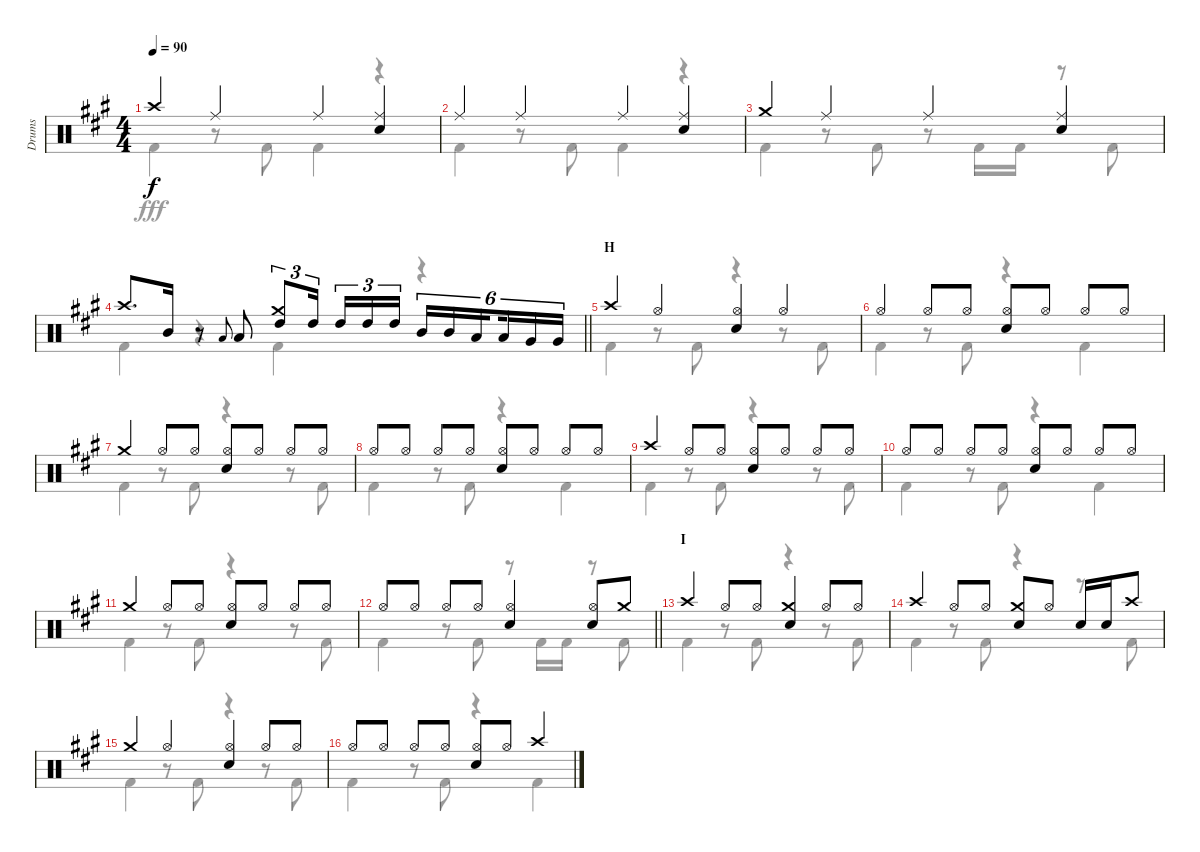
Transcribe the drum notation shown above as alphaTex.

\track ("Drums" "Drums") {instrument percussion}
\staff {score}
\articulation defaults
\voice
\ts (4 4)
\tempo 90
\clef neutral
\ks a "Crash high (hit)".4{dy f} "Ride (middle)".4 "Ride (middle)".4
("Ride (middle)" "Snare (hit) 2").4 |
"Ride (middle)".4 "Ride (middle)".4 "Ride (middle)".4 ("Ride (middle)" "Snare (hit) 2").4 |
"Crash medium (hit)".4 "Ride (middle)".4 "Ride (middle)".4 ("Ride (middle)" "Snare (hit) 2").4 |
\barLineRight lightlight "Crash high (hit)".8{d} "Mid Tom (hit)".16
r.8 "Low Tom (hit)".8{gr onbeat} "Low Tom (hit)".8 ("Crash medium (hit)" "High Tom (hit)").8{tu (3 2)} "High Tom (hit)".16{tu (3 2) beam splitsecondary} "High Tom (hit)".16{tu (3 2)} "High Tom (hit)".16{tu (3 2)} "High Tom (hit)".16{tu (3 2)} "Mid Tom (hit)".16{tu (6 4)} "Mid Tom (hit)".16{tu (6 4)} "Low Tom (hit)".16{tu (6 4) beam splitsecondary} "Low Tom (hit)".16{tu (6 4)} "Very Low Tom (hit)".16{tu (6 4)} "Very Low Tom (hit)".16{tu (6 4)} |
\section ("" "H")
"Crash high (hit)".4 "Hi-Hat (open)".4 ("Hi-Hat (open)" "Snare (hit) 2").4 "Hi-Hat (open)".4 |
"Hi-Hat (open)".4 "Hi-Hat (open)".8 "Hi-Hat (open)".8 ("Hi-Hat (open)" "Snare (hit) 2").8 "Hi-Hat (open)".8 "Hi-Hat (open)".8 "Hi-Hat (open)".8 |
"Crash medium (hit)".4 "Hi-Hat (open)".8 "Hi-Hat (open)".8 ("Hi-Hat (open)" "Snare (hit) 2").8 "Hi-Hat (open)".8 "Hi-Hat (open)".8 "Hi-Hat (open)".8 |
"Hi-Hat (open)".8 "Hi-Hat (open)".8 "Hi-Hat (open)".8 "Hi-Hat (open)".8 ("Hi-Hat (open)" "Snare (hit) 2").8 "Hi-Hat (open)".8 "Hi-Hat (open)".8 "Hi-Hat (open)".8 |
"Crash high (hit)".4 "Hi-Hat (open)".8 "Hi-Hat (open)".8 ("Hi-Hat (open)" "Snare (hit) 2").8 "Hi-Hat (open)".8 "Hi-Hat (open)".8 "Hi-Hat (open)".8 |
"Hi-Hat (open)".8 "Hi-Hat (open)".8 "Hi-Hat (open)".8 "Hi-Hat (open)".8 ("Hi-Hat (open)" "Snare (hit) 2").8 "Hi-Hat (open)".8 "Hi-Hat (open)".8 "Hi-Hat (open)".8 |
"Crash medium (hit)".4 "Hi-Hat (open)".8 "Hi-Hat (open)".8 ("Hi-Hat (open)" "Snare (hit) 2").8 "Hi-Hat (open)".8 "Hi-Hat (open)".8 "Hi-Hat (open)".8 |
\barLineRight lightlight "Hi-Hat (open)".8 "Hi-Hat (open)".8 "Hi-Hat (open)".8 "Hi-Hat (open)".8
("Hi-Hat (open)" "Snare (hit) 2").4 ("Hi-Hat (open)" "Snare (hit) 2").8 "Crash medium (hit)".8 |
\section ("" "I")
"Crash high (hit)".4 "Hi-Hat (open)".8 "Hi-Hat (open)".8 ("Crash medium (hit)" "Snare (hit) 2").4 "Hi-Hat (open)".8 "Hi-Hat (open)".8 |
"Crash high (hit)".4 "Hi-Hat (open)".8 "Hi-Hat (open)".8 ("Crash medium (hit)" "Snare (hit) 2").8 "Hi-Hat (open)".8 "Snare (hit) 2".16 "Snare (hit) 2".16 "Crash high (hit)".8 |
"Crash medium (hit)".4 "Hi-Hat (open)".4 ("Hi-Hat (open)" "Snare (hit) 2").4 "Hi-Hat (open)".8 "Hi-Hat (open)".8 |
"Hi-Hat (open)".8 "Hi-Hat (open)".8 "Hi-Hat (open)".8 "Hi-Hat (open)".8 ("Hi-Hat (open)" "Snare (hit) 2").8 "Hi-Hat (open)".8 "Crash high (hit)".4
\voice
\clef neutral
\ottava regular
\simile none
\ks a "Kick (hit) 2".4{dy fff}
r.8 "Kick (hit) 2".8 "Kick (hit) 2".4 r.4 |
"Kick (hit) 2".4 r.8 "Kick (hit) 2".8 "Kick (hit) 2".4 r.4 |
"Kick (hit) 2".4 r.8 "Kick (hit) 2".8 r.8 "Kick (hit) 2".16 "Kick (hit) 2".16 r.8 "Kick (hit) 2".8 |
\barLineRight lightlight "Kick (hit) 2".4
r.4 "Kick (hit) 2".4 r.4 |
"Kick (hit) 2".4 r.8 "Kick (hit) 2".8 r.4 r.8 "Kick (hit) 2".8 |
"Kick (hit) 2".4 r.8 "Kick (hit) 2".8 r.4 "Kick (hit) 2".4 |
"Kick (hit) 2".4 r.8 "Kick (hit) 2".8 r.4 r.8 "Kick (hit) 2".8 |
"Kick (hit) 2".4 r.8 "Kick (hit) 2".8 r.4 "Kick (hit) 2".4 |
"Kick (hit) 2".4 r.8 "Kick (hit) 2".8 r.4 r.8 "Kick (hit) 2".8 |
"Kick (hit) 2".4 r.8 "Kick (hit) 2".8 r.4 "Kick (hit) 2".4 |
"Kick (hit) 2".4 r.8 "Kick (hit) 2".8 r.4 r.8 "Kick (hit) 2".8 |
\barLineRight lightlight "Kick (hit) 2".4
r.8 "Kick (hit) 2".8 r.8 "Kick (hit) 2".16 "Kick (hit) 2".16 r.8 "Kick (hit) 2".8 |
"Kick (hit) 2".4 r.8 "Kick (hit) 2".8 r.4 r.8 "Kick (hit) 2".8 |
"Kick (hit) 2".4 r.8 "Kick (hit) 2".8 r.4 r.8 "Kick (hit) 2".8 |
"Kick (hit) 2".4 r.8 "Kick (hit) 2".8 r.4 r.8 "Kick (hit) 2".8 |
"Kick (hit) 2".4 r.8 "Kick (hit) 2".8 r.4 "Kick (hit) 2".4
